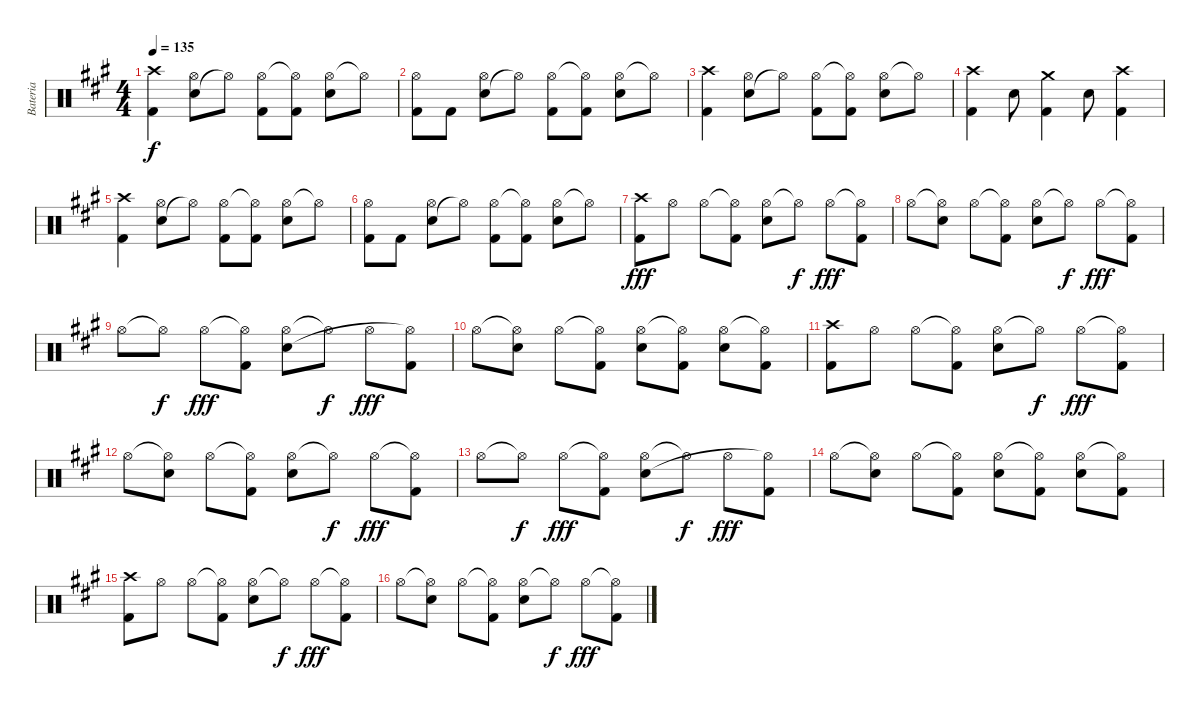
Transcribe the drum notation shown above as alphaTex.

\track ("Bateria" "Bateria") {instrument percussion}
\staff {score}
\articulation defaults
\ts (4 4)
\tempo 135
\clef neutral
\ks a
("Kick (hit) 2" "Crash high (hit)").4{dy f} ("Electric Snare (hit)" "Hi-Hat (open)").8 "Hi-Hat (open)"{t}.8 ("Hi-Hat (open)" "Kick (hit) 2").8 ("Hi-Hat (open)"{t} "Kick (hit) 2").8 ("Hi-Hat (open)" "Electric Snare (hit)").8 "Hi-Hat (open)"{t}.8 |
("Hi-Hat (open)" "Kick (hit) 2").8 "Kick (hit) 2".8 ("Electric Snare (hit)" "Hi-Hat (open)").8 "Hi-Hat (open)"{t}.8 ("Hi-Hat (open)" "Kick (hit) 2").8 ("Hi-Hat (open)"{t} "Kick (hit) 2").8 ("Hi-Hat (open)" "Electric Snare (hit)").8 "Hi-Hat (open)"{t}.8 |
("Kick (hit) 2" "Crash high (hit)").4 ("Electric Snare (hit)" "Hi-Hat (open)").8 "Hi-Hat (open)"{t}.8 ("Hi-Hat (open)" "Kick (hit) 2").8 ("Hi-Hat (open)"{t} "Kick (hit) 2").8 ("Hi-Hat (open)" "Electric Snare (hit)").8 "Hi-Hat (open)"{t}.8 |
("Kick (hit) 2" "Crash high (hit)").4 "Electric Snare (hit)".8 ("Kick (hit) 2" "Crash medium (hit)").4 "Electric Snare (hit)".8 ("Kick (hit) 2" "Crash high (hit)").4 |
("Kick (hit) 2" "Crash high (hit)").4 ("Electric Snare (hit)" "Hi-Hat (open)").8 "Hi-Hat (open)"{t}.8 ("Hi-Hat (open)" "Kick (hit) 2").8 ("Hi-Hat (open)"{t} "Kick (hit) 2").8 ("Hi-Hat (open)" "Electric Snare (hit)").8 "Hi-Hat (open)"{t}.8 |
("Hi-Hat (open)" "Kick (hit) 2").8 "Kick (hit) 2".8 ("Electric Snare (hit)" "Hi-Hat (open)").8 "Hi-Hat (open)"{t}.8 ("Hi-Hat (open)" "Kick (hit) 2").8 ("Hi-Hat (open)"{t} "Kick (hit) 2").8 ("Hi-Hat (open)" "Electric Snare (hit)").8 "Hi-Hat (open)"{t}.8 |
("Kick (hit) 2" "Crash high (hit)").8{dy fff} "Hi-Hat (open)".8 "Hi-Hat (open)".8 ("Hi-Hat (open)"{t} "Kick (hit) 2").8 ("Hi-Hat (open)" "Electric Snare (hit)").8 "Hi-Hat (open)"{t}.8{dy f} "Hi-Hat (open)".8{dy fff} ("Hi-Hat (open)"{t} "Kick (hit) 2").8 |
"Hi-Hat (open)".8 ("Hi-Hat (open)"{t} "Electric Snare (hit)").8 "Hi-Hat (open)".8 ("Hi-Hat (open)"{t} "Kick (hit) 2").8 ("Hi-Hat (open)" "Electric Snare (hit)").8 "Hi-Hat (open)"{t}.8{dy f} "Hi-Hat (open)".8{dy fff} ("Hi-Hat (open)"{t} "Kick (hit) 2").8 |
"Hi-Hat (open)".8 "Hi-Hat (open)"{t}.8{dy f} "Hi-Hat (open)".8{dy fff} ("Hi-Hat (open)"{t} "Kick (hit) 2").8 ("Hi-Hat (open)" "Electric Snare (hit)").8 "Hi-Hat (open)"{t}.8{dy f} "Hi-Hat (open)".8{dy fff} ("Kick (hit) 2" "Hi-Hat (open)"{t}).8 |
"Hi-Hat (open)".8 ("Hi-Hat (open)"{t} "Electric Snare (hit)").8 "Hi-Hat (open)".8 ("Hi-Hat (open)"{t} "Kick (hit) 2").8 ("Hi-Hat (open)" "Electric Snare (hit)").8 ("Hi-Hat (open)"{t} "Kick (hit) 2").8 ("Hi-Hat (open)" "Electric Snare (hit)").8 ("Hi-Hat (open)"{t} "Kick (hit) 2").8 |
("Kick (hit) 2" "Crash high (hit)").8 "Hi-Hat (open)".8 "Hi-Hat (open)".8 ("Hi-Hat (open)"{t} "Kick (hit) 2").8 ("Hi-Hat (open)" "Electric Snare (hit)").8 "Hi-Hat (open)"{t}.8{dy f} "Hi-Hat (open)".8{dy fff} ("Hi-Hat (open)"{t} "Kick (hit) 2").8 |
"Hi-Hat (open)".8 ("Hi-Hat (open)"{t} "Electric Snare (hit)").8 "Hi-Hat (open)".8 ("Hi-Hat (open)"{t} "Kick (hit) 2").8 ("Hi-Hat (open)" "Electric Snare (hit)").8 "Hi-Hat (open)"{t}.8{dy f} "Hi-Hat (open)".8{dy fff} ("Hi-Hat (open)"{t} "Kick (hit) 2").8 |
"Hi-Hat (open)".8 "Hi-Hat (open)"{t}.8{dy f} "Hi-Hat (open)".8{dy fff} ("Hi-Hat (open)"{t} "Kick (hit) 2").8 ("Hi-Hat (open)" "Electric Snare (hit)").8 "Hi-Hat (open)"{t}.8{dy f} "Hi-Hat (open)".8{dy fff} ("Kick (hit) 2" "Hi-Hat (open)"{t}).8 |
"Hi-Hat (open)".8 ("Hi-Hat (open)"{t} "Electric Snare (hit)").8 "Hi-Hat (open)".8 ("Hi-Hat (open)"{t} "Kick (hit) 2").8 ("Hi-Hat (open)" "Electric Snare (hit)").8 ("Hi-Hat (open)"{t} "Kick (hit) 2").8 ("Hi-Hat (open)" "Electric Snare (hit)").8 ("Hi-Hat (open)"{t} "Kick (hit) 2").8 |
("Kick (hit) 2" "Crash high (hit)").8 "Hi-Hat (open)".8 "Hi-Hat (open)".8 ("Hi-Hat (open)"{t} "Kick (hit) 2").8 ("Hi-Hat (open)" "Electric Snare (hit)").8 "Hi-Hat (open)"{t}.8{dy f} "Hi-Hat (open)".8{dy fff} ("Hi-Hat (open)"{t} "Kick (hit) 2").8 |
"Hi-Hat (open)".8 ("Hi-Hat (open)"{t} "Electric Snare (hit)").8 "Hi-Hat (open)".8 ("Hi-Hat (open)"{t} "Kick (hit) 2").8 ("Hi-Hat (open)" "Electric Snare (hit)").8 "Hi-Hat (open)"{t}.8{dy f} "Hi-Hat (open)".8{dy fff} ("Hi-Hat (open)"{t} "Kick (hit) 2").8
